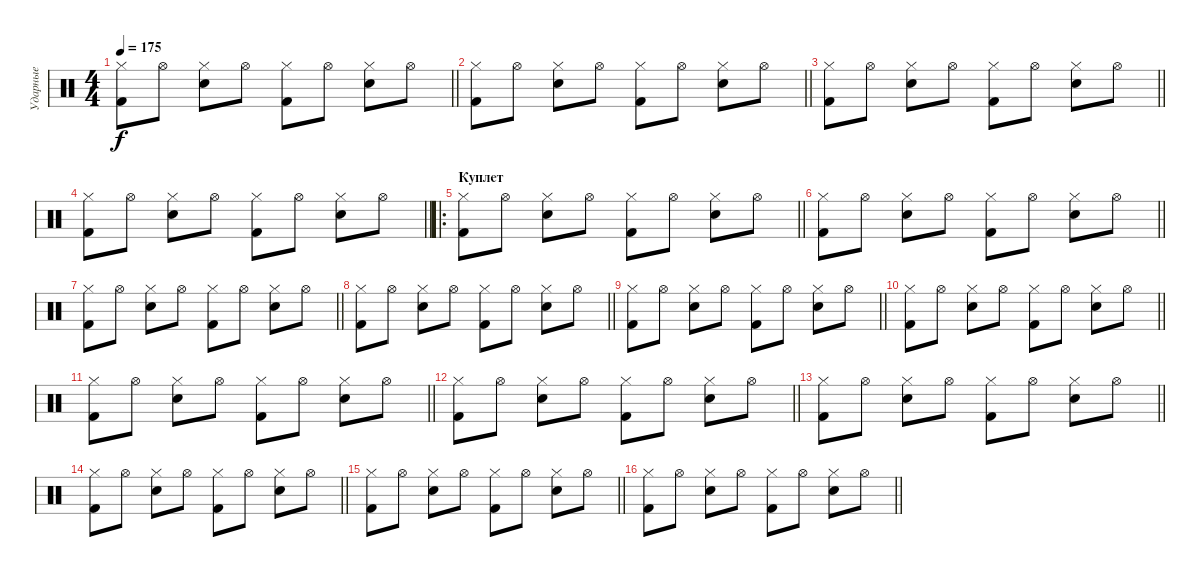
\track ("Ударные" "Ударные") {instrument percussion}
\staff {score}
\articulation defaults
\ts (4 4)
\tempo 175
\clef neutral
\barLineRight lightlight
\ks c
("Hi-Hat (closed)" "Kick (hit) 2").8{dy f} "Hi-Hat (open)".8 ("Hi-Hat (closed)" "Electric Snare (hit)").8 "Hi-Hat (open)".8 ("Hi-Hat (closed)" "Kick (hit) 2").8 "Hi-Hat (open)".8 ("Hi-Hat (closed)" "Electric Snare (hit)").8 "Hi-Hat (open)".8 |
\barLineRight lightlight
("Hi-Hat (closed)" "Kick (hit) 2").8 "Hi-Hat (open)".8 ("Hi-Hat (closed)" "Electric Snare (hit)").8 "Hi-Hat (open)".8 ("Hi-Hat (closed)" "Kick (hit) 2").8 "Hi-Hat (open)".8 ("Hi-Hat (closed)" "Electric Snare (hit)").8 "Hi-Hat (open)".8 |
\barLineRight lightlight
("Hi-Hat (closed)" "Kick (hit) 2").8 "Hi-Hat (open)".8 ("Hi-Hat (closed)" "Electric Snare (hit)").8 "Hi-Hat (open)".8 ("Hi-Hat (closed)" "Kick (hit) 2").8 "Hi-Hat (open)".8 ("Hi-Hat (closed)" "Electric Snare (hit)").8 "Hi-Hat (open)".8 |
\barLineRight lightlight
("Hi-Hat (closed)" "Kick (hit) 2").8 "Hi-Hat (open)".8 ("Hi-Hat (closed)" "Electric Snare (hit)").8 "Hi-Hat (open)".8 ("Hi-Hat (closed)" "Kick (hit) 2").8 "Hi-Hat (open)".8 ("Hi-Hat (closed)" "Electric Snare (hit)").8 "Hi-Hat (open)".8 |
\ro
\section ("" "Куплет")
\barLineRight lightlight
("Hi-Hat (closed)" "Kick (hit) 2").8 "Hi-Hat (open)".8 ("Hi-Hat (closed)" "Electric Snare (hit)").8 "Hi-Hat (open)".8 ("Hi-Hat (closed)" "Kick (hit) 2").8 "Hi-Hat (open)".8 ("Hi-Hat (closed)" "Electric Snare (hit)").8 "Hi-Hat (open)".8 |
\barLineRight lightlight
("Hi-Hat (closed)" "Kick (hit) 2").8 "Hi-Hat (open)".8 ("Hi-Hat (closed)" "Electric Snare (hit)").8 "Hi-Hat (open)".8 ("Hi-Hat (closed)" "Kick (hit) 2").8 "Hi-Hat (open)".8 ("Hi-Hat (closed)" "Electric Snare (hit)").8 "Hi-Hat (open)".8 |
\barLineRight lightlight
("Hi-Hat (closed)" "Kick (hit) 2").8 "Hi-Hat (open)".8 ("Hi-Hat (closed)" "Electric Snare (hit)").8 "Hi-Hat (open)".8 ("Hi-Hat (closed)" "Kick (hit) 2").8 "Hi-Hat (open)".8 ("Hi-Hat (closed)" "Electric Snare (hit)").8 "Hi-Hat (open)".8 |
\barLineRight lightlight
("Hi-Hat (closed)" "Kick (hit) 2").8 "Hi-Hat (open)".8 ("Hi-Hat (closed)" "Electric Snare (hit)").8 "Hi-Hat (open)".8 ("Hi-Hat (closed)" "Kick (hit) 2").8 "Hi-Hat (open)".8 ("Hi-Hat (closed)" "Electric Snare (hit)").8 "Hi-Hat (open)".8 |
\barLineRight lightlight
("Hi-Hat (closed)" "Kick (hit) 2").8 "Hi-Hat (open)".8 ("Hi-Hat (closed)" "Electric Snare (hit)").8 "Hi-Hat (open)".8 ("Hi-Hat (closed)" "Kick (hit) 2").8 "Hi-Hat (open)".8 ("Hi-Hat (closed)" "Electric Snare (hit)").8 "Hi-Hat (open)".8 |
\barLineRight lightlight
("Hi-Hat (closed)" "Kick (hit) 2").8 "Hi-Hat (open)".8 ("Hi-Hat (closed)" "Electric Snare (hit)").8 "Hi-Hat (open)".8 ("Hi-Hat (closed)" "Kick (hit) 2").8 "Hi-Hat (open)".8 ("Hi-Hat (closed)" "Electric Snare (hit)").8 "Hi-Hat (open)".8 |
\barLineRight lightlight
("Hi-Hat (closed)" "Kick (hit) 2").8 "Hi-Hat (open)".8 ("Hi-Hat (closed)" "Electric Snare (hit)").8 "Hi-Hat (open)".8 ("Hi-Hat (closed)" "Kick (hit) 2").8 "Hi-Hat (open)".8 ("Hi-Hat (closed)" "Electric Snare (hit)").8 "Hi-Hat (open)".8 |
\barLineRight lightlight
("Hi-Hat (closed)" "Kick (hit) 2").8 "Hi-Hat (open)".8 ("Hi-Hat (closed)" "Electric Snare (hit)").8 "Hi-Hat (open)".8 ("Hi-Hat (closed)" "Kick (hit) 2").8 "Hi-Hat (open)".8 ("Hi-Hat (closed)" "Electric Snare (hit)").8 "Hi-Hat (open)".8 |
\barLineRight lightlight
("Hi-Hat (closed)" "Kick (hit) 2").8 "Hi-Hat (open)".8 ("Hi-Hat (closed)" "Electric Snare (hit)").8 "Hi-Hat (open)".8 ("Hi-Hat (closed)" "Kick (hit) 2").8 "Hi-Hat (open)".8 ("Hi-Hat (closed)" "Electric Snare (hit)").8 "Hi-Hat (open)".8 |
\barLineRight lightlight
("Hi-Hat (closed)" "Kick (hit) 2").8 "Hi-Hat (open)".8 ("Hi-Hat (closed)" "Electric Snare (hit)").8 "Hi-Hat (open)".8 ("Hi-Hat (closed)" "Kick (hit) 2").8 "Hi-Hat (open)".8 ("Hi-Hat (closed)" "Electric Snare (hit)").8 "Hi-Hat (open)".8 |
\barLineRight lightlight
("Hi-Hat (closed)" "Kick (hit) 2").8 "Hi-Hat (open)".8 ("Hi-Hat (closed)" "Electric Snare (hit)").8 "Hi-Hat (open)".8 ("Hi-Hat (closed)" "Kick (hit) 2").8 "Hi-Hat (open)".8 ("Hi-Hat (closed)" "Electric Snare (hit)").8 "Hi-Hat (open)".8 |
\barLineRight lightlight
("Hi-Hat (closed)" "Kick (hit) 2").8 "Hi-Hat (open)".8 ("Hi-Hat (closed)" "Electric Snare (hit)").8 "Hi-Hat (open)".8 ("Hi-Hat (closed)" "Kick (hit) 2").8 "Hi-Hat (open)".8 ("Hi-Hat (closed)" "Electric Snare (hit)").8 "Hi-Hat (open)".8
